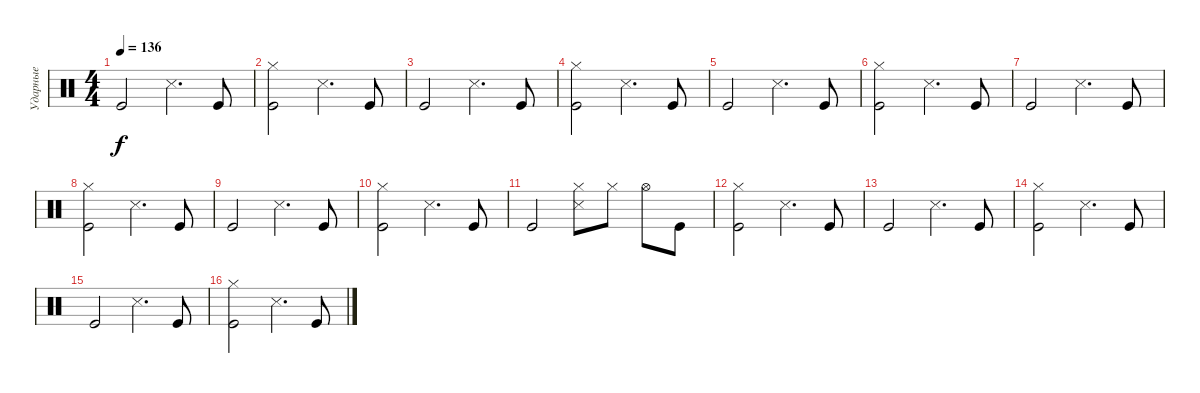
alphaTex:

\track ("Ударные" "Ударные") {instrument percussion}
\staff {score}
\articulation defaults
\ts (4 4)
\tempo 136
\clef neutral
\ks c "Kick (hit)".2{dy f} "Snare (side stick) 3".4{d} "Kick (hit)".8
|
("Kick (hit)" "Hi-Hat (closed)").2 "Snare (side stick) 3".4{d} "Kick (hit)".8 |
"Kick (hit)".2 "Snare (side stick) 3".4{d} "Kick (hit)".8 |
("Kick (hit)" "Hi-Hat (closed)").2 "Snare (side stick) 3".4{d} "Kick (hit)".8 |
"Kick (hit)".2 "Snare (side stick) 3".4{d} "Kick (hit)".8 |
("Kick (hit)" "Hi-Hat (closed)").2 "Snare (side stick) 3".4{d} "Kick (hit)".8 |
"Kick (hit)".2 "Snare (side stick) 3".4{d} "Kick (hit)".8 |
("Kick (hit)" "Hi-Hat (closed)").2 "Snare (side stick) 3".4{d} "Kick (hit)".8 |
"Kick (hit)".2 "Snare (side stick) 3".4{d} "Kick (hit)".8 |
("Kick (hit)" "Hi-Hat (closed)").2 "Snare (side stick) 3".4{d} "Kick (hit)".8 |
"Kick (hit)".2 ("Hi-Hat (closed)" "Snare (side stick) 3").8 "Hi-Hat (closed)".8 "Hi-Hat (open)".8 "Kick (hit)".8 |
("Kick (hit)" "Hi-Hat (closed)").2 "Snare (side stick) 3".4{d} "Kick (hit)".8 |
"Kick (hit)".2 "Snare (side stick) 3".4{d} "Kick (hit)".8 |
("Kick (hit)" "Hi-Hat (closed)").2 "Snare (side stick) 3".4{d} "Kick (hit)".8 |
"Kick (hit)".2 "Snare (side stick) 3".4{d} "Kick (hit)".8 |
("Kick (hit)" "Hi-Hat (closed)").2 "Snare (side stick) 3".4{d} "Kick (hit)".8
